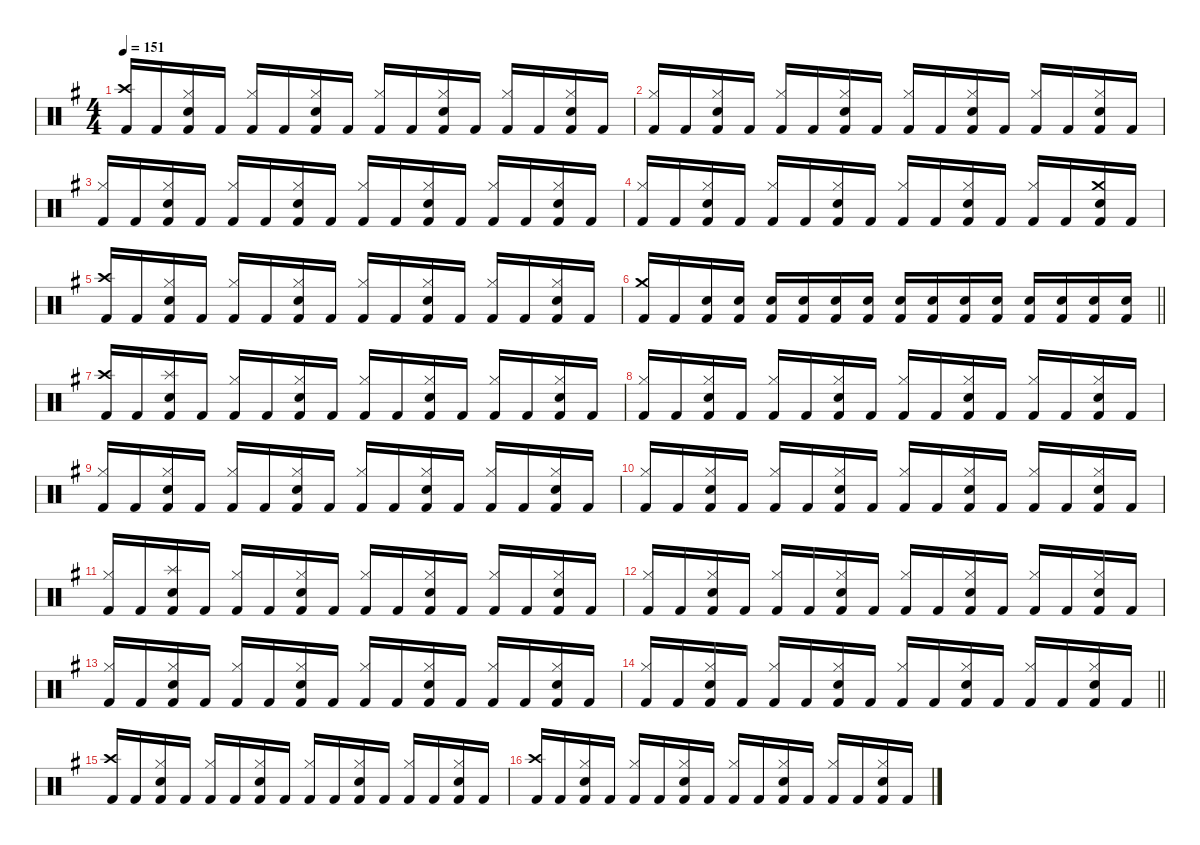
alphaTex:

\defaultSystemsLayout 4
\hideDynamics
\bracketExtendMode nobrackets
\singleTrackTrackNamePolicy hidden
\multiTrackTrackNamePolicy hidden
\otherSystemsTrackNameOrientation horizontal
\track ("Lars Ulrich" "drm.") {instrument percussion}
\staff {score}
\articulation defaults
\ts (4 4)
\tempo 151
\clef neutral
\ks eminor
("Crash high (hit)"{acc forcenatural} "Kick (hit) 2"{acc forcenatural}).16{dy f beam Up} "Kick (hit) 2"{acc forcenatural}.16{beam Up} ("Hi-Hat (closed)"{acc forcenatural} "Snare (hit) 2"{acc forcenatural} "Kick (hit) 2"{acc forcenatural}).16{beam Up} "Kick (hit) 2"{acc forcenatural}.16{beam Up} ("Hi-Hat (closed)"{acc forcenatural} "Kick (hit) 2"{acc forcenatural}).16{beam Up} "Kick (hit) 2"{acc forcenatural}.16{beam Up} ("Hi-Hat (closed)"{acc forcenatural} "Snare (hit) 2"{acc forcenatural} "Kick (hit) 2"{acc forcenatural}).16{beam Up} "Kick (hit) 2"{acc forcenatural}.16{beam Up} ("Hi-Hat (closed)"{acc forcenatural} "Kick (hit) 2"{acc forcenatural}).16{beam Up} "Kick (hit) 2"{acc forcenatural}.16{beam Up} ("Hi-Hat (closed)"{acc forcenatural} "Snare (hit) 2"{acc forcenatural} "Kick (hit) 2"{acc forcenatural}).16{beam Up} "Kick (hit) 2"{acc forcenatural}.16{beam Up} ("Hi-Hat (closed)"{acc forcenatural} "Kick (hit) 2"{acc forcenatural}).16{beam Up} "Kick (hit) 2"{acc forcenatural}.16{beam Up} ("Hi-Hat (closed)"{acc forcenatural} "Snare (hit) 2"{acc forcenatural} "Kick (hit) 2"{acc forcenatural}).16{beam Up} "Kick (hit) 2"{acc forcenatural}.16{beam Up} |
("Hi-Hat (closed)"{acc forcenatural} "Kick (hit) 2"{acc forcenatural}).16{beam Up} "Kick (hit) 2"{acc forcenatural}.16{beam Up} ("Hi-Hat (closed)"{acc forcenatural} "Snare (hit) 2"{acc forcenatural} "Kick (hit) 2"{acc forcenatural}).16{beam Up} "Kick (hit) 2"{acc forcenatural}.16{beam Up} ("Hi-Hat (closed)"{acc forcenatural} "Kick (hit) 2"{acc forcenatural}).16{beam Up} "Kick (hit) 2"{acc forcenatural}.16{beam Up} ("Hi-Hat (closed)"{acc forcenatural} "Snare (hit) 2"{acc forcenatural} "Kick (hit) 2"{acc forcenatural}).16{beam Up} "Kick (hit) 2"{acc forcenatural}.16{beam Up} ("Hi-Hat (closed)"{acc forcenatural} "Kick (hit) 2"{acc forcenatural}).16{beam Up} "Kick (hit) 2"{acc forcenatural}.16{beam Up} ("Hi-Hat (closed)"{acc forcenatural} "Snare (hit) 2"{acc forcenatural} "Kick (hit) 2"{acc forcenatural}).16{beam Up} "Kick (hit) 2"{acc forcenatural}.16{beam Up} ("Hi-Hat (closed)"{acc forcenatural} "Kick (hit) 2"{acc forcenatural}).16{beam Up} "Kick (hit) 2"{acc forcenatural}.16{beam Up} ("Hi-Hat (closed)"{acc forcenatural} "Snare (hit) 2"{acc forcenatural} "Kick (hit) 2"{acc forcenatural}).16{beam Up} "Kick (hit) 2"{acc forcenatural}.16{beam Up} |
("Hi-Hat (closed)"{acc forcenatural} "Kick (hit) 2"{acc forcenatural}).16{beam Up} "Kick (hit) 2"{acc forcenatural}.16{beam Up} ("Hi-Hat (closed)"{acc forcenatural} "Snare (hit) 2"{acc forcenatural} "Kick (hit) 2"{acc forcenatural}).16{beam Up} "Kick (hit) 2"{acc forcenatural}.16{beam Up} ("Hi-Hat (closed)"{acc forcenatural} "Kick (hit) 2"{acc forcenatural}).16{beam Up} "Kick (hit) 2"{acc forcenatural}.16{beam Up} ("Hi-Hat (closed)"{acc forcenatural} "Snare (hit) 2"{acc forcenatural} "Kick (hit) 2"{acc forcenatural}).16{beam Up} "Kick (hit) 2"{acc forcenatural}.16{beam Up} ("Hi-Hat (closed)"{acc forcenatural} "Kick (hit) 2"{acc forcenatural}).16{beam Up} "Kick (hit) 2"{acc forcenatural}.16{beam Up} ("Hi-Hat (closed)"{acc forcenatural} "Snare (hit) 2"{acc forcenatural} "Kick (hit) 2"{acc forcenatural}).16{beam Up} "Kick (hit) 2"{acc forcenatural}.16{beam Up} ("Hi-Hat (closed)"{acc forcenatural} "Kick (hit) 2"{acc forcenatural}).16{beam Up} "Kick (hit) 2"{acc forcenatural}.16{beam Up} ("Hi-Hat (closed)"{acc forcenatural} "Snare (hit) 2"{acc forcenatural} "Kick (hit) 2"{acc forcenatural}).16{beam Up} "Kick (hit) 2"{acc forcenatural}.16{beam Up} |
("Hi-Hat (closed)"{acc forcenatural} "Kick (hit) 2"{acc forcenatural}).16{beam Up} "Kick (hit) 2"{acc forcenatural}.16{beam Up} ("Hi-Hat (closed)"{acc forcenatural} "Snare (hit) 2"{acc forcenatural} "Kick (hit) 2"{acc forcenatural}).16{beam Up} "Kick (hit) 2"{acc forcenatural}.16{beam Up} ("Hi-Hat (closed)"{acc forcenatural} "Kick (hit) 2"{acc forcenatural}).16{beam Up} "Kick (hit) 2"{acc forcenatural}.16{beam Up} ("Hi-Hat (closed)"{acc forcenatural} "Snare (hit) 2"{acc forcenatural} "Kick (hit) 2"{acc forcenatural}).16{beam Up} "Kick (hit) 2"{acc forcenatural}.16{beam Up} ("Hi-Hat (closed)"{acc forcenatural} "Kick (hit) 2"{acc forcenatural}).16{beam Up} "Kick (hit) 2"{acc forcenatural}.16{beam Up} ("Hi-Hat (closed)"{acc forcenatural} "Snare (hit) 2"{acc forcenatural} "Kick (hit) 2"{acc forcenatural}).16{beam Up} "Kick (hit) 2"{acc forcenatural}.16{beam Up} ("Hi-Hat (closed)"{acc forcenatural} "Kick (hit) 2"{acc forcenatural}).16{beam Up} "Kick (hit) 2"{acc forcenatural}.16{beam Up} ("Crash medium (hit)"{acc forcenatural} "Snare (hit) 2"{acc forcenatural} "Kick (hit) 2"{acc forcenatural}).16{beam Up} "Kick (hit) 2"{acc forcenatural}.16{beam Up} |
("Crash high (hit)"{acc forcenatural} "Kick (hit) 2"{acc forcenatural}).16{beam Up} "Kick (hit) 2"{acc forcenatural}.16{beam Up} ("Hi-Hat (closed)"{acc forcenatural} "Snare (hit) 2"{acc forcenatural} "Kick (hit) 2"{acc forcenatural}).16{beam Up} "Kick (hit) 2"{acc forcenatural}.16{beam Up} ("Hi-Hat (closed)"{acc forcenatural} "Kick (hit) 2"{acc forcenatural}).16{beam Up} "Kick (hit) 2"{acc forcenatural}.16{beam Up} ("Hi-Hat (closed)"{acc forcenatural} "Snare (hit) 2"{acc forcenatural} "Kick (hit) 2"{acc forcenatural}).16{beam Up} "Kick (hit) 2"{acc forcenatural}.16{beam Up} ("Hi-Hat (closed)"{acc forcenatural} "Kick (hit) 2"{acc forcenatural}).16{beam Up} "Kick (hit) 2"{acc forcenatural}.16{beam Up} ("Hi-Hat (closed)"{acc forcenatural} "Snare (hit) 2"{acc forcenatural} "Kick (hit) 2"{acc forcenatural}).16{beam Up} "Kick (hit) 2"{acc forcenatural}.16{beam Up} ("Hi-Hat (closed)"{acc forcenatural} "Kick (hit) 2"{acc forcenatural}).16{beam Up} "Kick (hit) 2"{acc forcenatural}.16{beam Up} ("Hi-Hat (closed)"{acc forcenatural} "Snare (hit) 2"{acc forcenatural} "Kick (hit) 2"{acc forcenatural}).16{beam Up} "Kick (hit) 2"{acc forcenatural}.16{beam Up} |
\barLineRight lightlight
("Crash medium (hit)"{acc forcenatural} "Kick (hit) 2"{acc forcenatural}).16{beam Up} "Kick (hit) 2"{acc forcenatural}.16{beam Up} ("Snare (hit) 2"{acc forcenatural} "Kick (hit) 2"{acc forcenatural}).16{beam Up} ("Snare (hit) 2"{acc forcenatural} "Kick (hit) 2"{acc forcenatural}).16{beam Up} ("Snare (hit) 2"{acc forcenatural} "Kick (hit) 2"{acc forcenatural}).16{beam Up} ("Snare (hit) 2"{acc forcenatural} "Kick (hit) 2"{acc forcenatural}).16{beam Up} ("Snare (hit) 2"{acc forcenatural} "Kick (hit) 2"{acc forcenatural}).16{beam Up} ("Snare (hit) 2"{acc forcenatural} "Kick (hit) 2"{acc forcenatural}).16{beam Up} ("Snare (hit) 2"{acc forcenatural} "Kick (hit) 2"{acc forcenatural}).16{beam Up} ("Snare (hit) 2"{acc forcenatural} "Kick (hit) 2"{acc forcenatural}).16{beam Up} ("Snare (hit) 2"{acc forcenatural} "Kick (hit) 2"{acc forcenatural}).16{beam Up} ("Snare (hit) 2"{acc forcenatural} "Kick (hit) 2"{acc forcenatural}).16{beam Up} ("Snare (hit) 2"{acc forcenatural} "Kick (hit) 2"{acc forcenatural}).16{beam Up} ("Snare (hit) 2"{acc forcenatural} "Kick (hit) 2"{acc forcenatural}).16{beam Up} ("Snare (hit) 2"{acc forcenatural} "Kick (hit) 2"{acc forcenatural}).16{beam Up} ("Snare (hit) 2"{acc forcenatural} "Kick (hit) 2"{acc forcenatural}).16{beam Up} |
("Crash high (hit)"{acc forcenatural} "Kick (hit) 2"{acc forcenatural}).16{beam Up} "Kick (hit) 2"{acc forcenatural}.16{beam Up} ("Splash (hit)"{acc forcenatural} "Snare (hit) 2"{acc forcenatural} "Kick (hit) 2"{acc forcenatural}).16{beam Up} "Kick (hit) 2"{acc forcenatural}.16{beam Up} ("Hi-Hat (closed)"{acc forcenatural} "Kick (hit) 2"{acc forcenatural}).16{beam Up} "Kick (hit) 2"{acc forcenatural}.16{beam Up} ("Hi-Hat (closed)"{acc forcenatural} "Snare (hit) 2"{acc forcenatural} "Kick (hit) 2"{acc forcenatural}).16{beam Up} "Kick (hit) 2"{acc forcenatural}.16{beam Up} ("Hi-Hat (closed)"{acc forcenatural} "Kick (hit) 2"{acc forcenatural}).16{beam Up} "Kick (hit) 2"{acc forcenatural}.16{beam Up} ("Hi-Hat (closed)"{acc forcenatural} "Snare (hit) 2"{acc forcenatural} "Kick (hit) 2"{acc forcenatural}).16{beam Up} "Kick (hit) 2"{acc forcenatural}.16{beam Up} ("Hi-Hat (closed)"{acc forcenatural} "Kick (hit) 2"{acc forcenatural}).16{beam Up} "Kick (hit) 2"{acc forcenatural}.16{beam Up} ("Hi-Hat (closed)"{acc forcenatural} "Snare (hit) 2"{acc forcenatural} "Kick (hit) 2"{acc forcenatural}).16{beam Up} "Kick (hit) 2"{acc forcenatural}.16{beam Up} |
("Hi-Hat (closed)"{acc forcenatural} "Kick (hit) 2"{acc forcenatural}).16{beam Up} "Kick (hit) 2"{acc forcenatural}.16{beam Up} ("Hi-Hat (closed)"{acc forcenatural} "Snare (hit) 2"{acc forcenatural} "Kick (hit) 2"{acc forcenatural}).16{beam Up} "Kick (hit) 2"{acc forcenatural}.16{beam Up} ("Hi-Hat (closed)"{acc forcenatural} "Kick (hit) 2"{acc forcenatural}).16{beam Up} "Kick (hit) 2"{acc forcenatural}.16{beam Up} ("Hi-Hat (closed)"{acc forcenatural} "Snare (hit) 2"{acc forcenatural} "Kick (hit) 2"{acc forcenatural}).16{beam Up} "Kick (hit) 2"{acc forcenatural}.16{beam Up} ("Hi-Hat (closed)"{acc forcenatural} "Kick (hit) 2"{acc forcenatural}).16{beam Up} "Kick (hit) 2"{acc forcenatural}.16{beam Up} ("Hi-Hat (closed)"{acc forcenatural} "Snare (hit) 2"{acc forcenatural} "Kick (hit) 2"{acc forcenatural}).16{beam Up} "Kick (hit) 2"{acc forcenatural}.16{beam Up} ("Hi-Hat (closed)"{acc forcenatural} "Kick (hit) 2"{acc forcenatural}).16{beam Up} "Kick (hit) 2"{acc forcenatural}.16{beam Up} ("Hi-Hat (closed)"{acc forcenatural} "Snare (hit) 2"{acc forcenatural} "Kick (hit) 2"{acc forcenatural}).16{beam Up} "Kick (hit) 2"{acc forcenatural}.16{beam Up} |
("Hi-Hat (closed)"{acc forcenatural} "Kick (hit) 2"{acc forcenatural}).16{beam Up} "Kick (hit) 2"{acc forcenatural}.16{beam Up} ("Hi-Hat (closed)"{acc forcenatural} "Snare (hit) 2"{acc forcenatural} "Kick (hit) 2"{acc forcenatural}).16{beam Up} "Kick (hit) 2"{acc forcenatural}.16{beam Up} ("Hi-Hat (closed)"{acc forcenatural} "Kick (hit) 2"{acc forcenatural}).16{beam Up} "Kick (hit) 2"{acc forcenatural}.16{beam Up} ("Hi-Hat (closed)"{acc forcenatural} "Snare (hit) 2"{acc forcenatural} "Kick (hit) 2"{acc forcenatural}).16{beam Up} "Kick (hit) 2"{acc forcenatural}.16{beam Up} ("Hi-Hat (closed)"{acc forcenatural} "Kick (hit) 2"{acc forcenatural}).16{beam Up} "Kick (hit) 2"{acc forcenatural}.16{beam Up} ("Hi-Hat (closed)"{acc forcenatural} "Snare (hit) 2"{acc forcenatural} "Kick (hit) 2"{acc forcenatural}).16{beam Up} "Kick (hit) 2"{acc forcenatural}.16{beam Up} ("Hi-Hat (closed)"{acc forcenatural} "Kick (hit) 2"{acc forcenatural}).16{beam Up} "Kick (hit) 2"{acc forcenatural}.16{beam Up} ("Hi-Hat (closed)"{acc forcenatural} "Snare (hit) 2"{acc forcenatural} "Kick (hit) 2"{acc forcenatural}).16{beam Up} "Kick (hit) 2"{acc forcenatural}.16{beam Up} |
("Hi-Hat (closed)"{acc forcenatural} "Kick (hit) 2"{acc forcenatural}).16{beam Up} "Kick (hit) 2"{acc forcenatural}.16{beam Up} ("Hi-Hat (closed)"{acc forcenatural} "Snare (hit) 2"{acc forcenatural} "Kick (hit) 2"{acc forcenatural}).16{beam Up} "Kick (hit) 2"{acc forcenatural}.16{beam Up} ("Hi-Hat (closed)"{acc forcenatural} "Kick (hit) 2"{acc forcenatural}).16{beam Up} "Kick (hit) 2"{acc forcenatural}.16{beam Up} ("Hi-Hat (closed)"{acc forcenatural} "Snare (hit) 2"{acc forcenatural} "Kick (hit) 2"{acc forcenatural}).16{beam Up} "Kick (hit) 2"{acc forcenatural}.16{beam Up} ("Hi-Hat (closed)"{acc forcenatural} "Kick (hit) 2"{acc forcenatural}).16{beam Up} "Kick (hit) 2"{acc forcenatural}.16{beam Up} ("Hi-Hat (closed)"{acc forcenatural} "Snare (hit) 2"{acc forcenatural} "Kick (hit) 2"{acc forcenatural}).16{beam Up} "Kick (hit) 2"{acc forcenatural}.16{beam Up} ("Hi-Hat (closed)"{acc forcenatural} "Kick (hit) 2"{acc forcenatural}).16{beam Up} "Kick (hit) 2"{acc forcenatural}.16{beam Up} ("Hi-Hat (closed)"{acc forcenatural} "Snare (hit) 2"{acc forcenatural} "Kick (hit) 2"{acc forcenatural}).16{beam Up} "Kick (hit) 2"{acc forcenatural}.16{beam Up} |
("Hi-Hat (closed)"{acc forcenatural} "Kick (hit) 2"{acc forcenatural}).16{beam Up} "Kick (hit) 2"{acc forcenatural}.16{beam Up} ("Splash (hit)"{acc forcenatural} "Snare (hit) 2"{acc forcenatural} "Kick (hit) 2"{acc forcenatural}).16{beam Up} "Kick (hit) 2"{acc forcenatural}.16{beam Up} ("Hi-Hat (closed)"{acc forcenatural} "Kick (hit) 2"{acc forcenatural}).16{beam Up} "Kick (hit) 2"{acc forcenatural}.16{beam Up} ("Hi-Hat (closed)"{acc forcenatural} "Snare (hit) 2"{acc forcenatural} "Kick (hit) 2"{acc forcenatural}).16{beam Up} "Kick (hit) 2"{acc forcenatural}.16{beam Up} ("Hi-Hat (closed)"{acc forcenatural} "Kick (hit) 2"{acc forcenatural}).16{beam Up} "Kick (hit) 2"{acc forcenatural}.16{beam Up} ("Hi-Hat (closed)"{acc forcenatural} "Snare (hit) 2"{acc forcenatural} "Kick (hit) 2"{acc forcenatural}).16{beam Up} "Kick (hit) 2"{acc forcenatural}.16{beam Up} ("Hi-Hat (closed)"{acc forcenatural} "Kick (hit) 2"{acc forcenatural}).16{beam Up} "Kick (hit) 2"{acc forcenatural}.16{beam Up} ("Hi-Hat (closed)"{acc forcenatural} "Snare (hit) 2"{acc forcenatural} "Kick (hit) 2"{acc forcenatural}).16{beam Up} "Kick (hit) 2"{acc forcenatural}.16{beam Up} |
("Hi-Hat (closed)"{acc forcenatural} "Kick (hit) 2"{acc forcenatural}).16{beam Up} "Kick (hit) 2"{acc forcenatural}.16{beam Up} ("Hi-Hat (closed)"{acc forcenatural} "Snare (hit) 2"{acc forcenatural} "Kick (hit) 2"{acc forcenatural}).16{beam Up} "Kick (hit) 2"{acc forcenatural}.16{beam Up} ("Hi-Hat (closed)"{acc forcenatural} "Kick (hit) 2"{acc forcenatural}).16{beam Up} "Kick (hit) 2"{acc forcenatural}.16{beam Up} ("Hi-Hat (closed)"{acc forcenatural} "Snare (hit) 2"{acc forcenatural} "Kick (hit) 2"{acc forcenatural}).16{beam Up} "Kick (hit) 2"{acc forcenatural}.16{beam Up} ("Hi-Hat (closed)"{acc forcenatural} "Kick (hit) 2"{acc forcenatural}).16{beam Up} "Kick (hit) 2"{acc forcenatural}.16{beam Up} ("Hi-Hat (closed)"{acc forcenatural} "Snare (hit) 2"{acc forcenatural} "Kick (hit) 2"{acc forcenatural}).16{beam Up} "Kick (hit) 2"{acc forcenatural}.16{beam Up} ("Hi-Hat (closed)"{acc forcenatural} "Kick (hit) 2"{acc forcenatural}).16{beam Up} "Kick (hit) 2"{acc forcenatural}.16{beam Up} ("Hi-Hat (closed)"{acc forcenatural} "Snare (hit) 2"{acc forcenatural} "Kick (hit) 2"{acc forcenatural}).16{beam Up} "Kick (hit) 2"{acc forcenatural}.16{beam Up} |
("Hi-Hat (closed)"{acc forcenatural} "Kick (hit) 2"{acc forcenatural}).16{beam Up} "Kick (hit) 2"{acc forcenatural}.16{beam Up} ("Hi-Hat (closed)"{acc forcenatural} "Snare (hit) 2"{acc forcenatural} "Kick (hit) 2"{acc forcenatural}).16{beam Up} "Kick (hit) 2"{acc forcenatural}.16{beam Up} ("Hi-Hat (closed)"{acc forcenatural} "Kick (hit) 2"{acc forcenatural}).16{beam Up} "Kick (hit) 2"{acc forcenatural}.16{beam Up} ("Hi-Hat (closed)"{acc forcenatural} "Snare (hit) 2"{acc forcenatural} "Kick (hit) 2"{acc forcenatural}).16{beam Up} "Kick (hit) 2"{acc forcenatural}.16{beam Up} ("Hi-Hat (closed)"{acc forcenatural} "Kick (hit) 2"{acc forcenatural}).16{beam Up} "Kick (hit) 2"{acc forcenatural}.16{beam Up} ("Hi-Hat (closed)"{acc forcenatural} "Snare (hit) 2"{acc forcenatural} "Kick (hit) 2"{acc forcenatural}).16{beam Up} "Kick (hit) 2"{acc forcenatural}.16{beam Up} ("Hi-Hat (closed)"{acc forcenatural} "Kick (hit) 2"{acc forcenatural}).16{beam Up} "Kick (hit) 2"{acc forcenatural}.16{beam Up} ("Hi-Hat (closed)"{acc forcenatural} "Snare (hit) 2"{acc forcenatural} "Kick (hit) 2"{acc forcenatural}).16{beam Up} "Kick (hit) 2"{acc forcenatural}.16{beam Up} |
\barLineRight lightlight
("Hi-Hat (closed)"{acc forcenatural} "Kick (hit) 2"{acc forcenatural}).16{beam Up} "Kick (hit) 2"{acc forcenatural}.16{beam Up} ("Hi-Hat (closed)"{acc forcenatural} "Snare (hit) 2"{acc forcenatural} "Kick (hit) 2"{acc forcenatural}).16{beam Up} "Kick (hit) 2"{acc forcenatural}.16{beam Up} ("Hi-Hat (closed)"{acc forcenatural} "Kick (hit) 2"{acc forcenatural}).16{beam Up} "Kick (hit) 2"{acc forcenatural}.16{beam Up} ("Hi-Hat (closed)"{acc forcenatural} "Snare (hit) 2"{acc forcenatural} "Kick (hit) 2"{acc forcenatural}).16{beam Up} "Kick (hit) 2"{acc forcenatural}.16{beam Up} ("Hi-Hat (closed)"{acc forcenatural} "Kick (hit) 2"{acc forcenatural}).16{beam Up} "Kick (hit) 2"{acc forcenatural}.16{beam Up} ("Hi-Hat (closed)"{acc forcenatural} "Snare (hit) 2"{acc forcenatural} "Kick (hit) 2"{acc forcenatural}).16{beam Up} "Kick (hit) 2"{acc forcenatural}.16{beam Up} ("Hi-Hat (closed)"{acc forcenatural} "Kick (hit) 2"{acc forcenatural}).16{beam Up} "Kick (hit) 2"{acc forcenatural}.16{beam Up} ("Hi-Hat (closed)"{acc forcenatural} "Snare (hit) 2"{acc forcenatural} "Kick (hit) 2"{acc forcenatural}).16{beam Up} "Kick (hit) 2"{acc forcenatural}.16{beam Up} |
("Crash high (hit)"{acc forcenatural} "Kick (hit) 2"{acc forcenatural}).16{beam Up} "Kick (hit) 2"{acc forcenatural}.16{beam Up} ("Hi-Hat (closed)"{acc forcenatural} "Snare (hit) 2"{acc forcenatural} "Kick (hit) 2"{acc forcenatural}).16{beam Up} "Kick (hit) 2"{acc forcenatural}.16{beam Up} ("Hi-Hat (closed)"{acc forcenatural} "Kick (hit) 2"{acc forcenatural}).16{beam Up} "Kick (hit) 2"{acc forcenatural}.16{beam Up} ("Hi-Hat (closed)"{acc forcenatural} "Snare (hit) 2"{acc forcenatural} "Kick (hit) 2"{acc forcenatural}).16{beam Up} "Kick (hit) 2"{acc forcenatural}.16{beam Up} ("Hi-Hat (closed)"{acc forcenatural} "Kick (hit) 2"{acc forcenatural}).16{beam Up} "Kick (hit) 2"{acc forcenatural}.16{beam Up} ("Hi-Hat (closed)"{acc forcenatural} "Snare (hit) 2"{acc forcenatural} "Kick (hit) 2"{acc forcenatural}).16{beam Up} "Kick (hit) 2"{acc forcenatural}.16{beam Up} ("Hi-Hat (closed)"{acc forcenatural} "Kick (hit) 2"{acc forcenatural}).16{beam Up} "Kick (hit) 2"{acc forcenatural}.16{beam Up} ("Hi-Hat (closed)"{acc forcenatural} "Snare (hit) 2"{acc forcenatural} "Kick (hit) 2"{acc forcenatural}).16{beam Up} "Kick (hit) 2"{acc forcenatural}.16{beam Up} |
("Crash high (hit)"{acc forcenatural} "Kick (hit) 2"{acc forcenatural}).16{beam Up} "Kick (hit) 2"{acc forcenatural}.16{beam Up} ("Hi-Hat (closed)"{acc forcenatural} "Snare (hit) 2"{acc forcenatural} "Kick (hit) 2"{acc forcenatural}).16{beam Up} "Kick (hit) 2"{acc forcenatural}.16{beam Up} ("Hi-Hat (closed)"{acc forcenatural} "Kick (hit) 2"{acc forcenatural}).16{beam Up} "Kick (hit) 2"{acc forcenatural}.16{beam Up} ("Hi-Hat (closed)"{acc forcenatural} "Snare (hit) 2"{acc forcenatural} "Kick (hit) 2"{acc forcenatural}).16{beam Up} "Kick (hit) 2"{acc forcenatural}.16{beam Up} ("Hi-Hat (closed)"{acc forcenatural} "Kick (hit) 2"{acc forcenatural}).16{beam Up} "Kick (hit) 2"{acc forcenatural}.16{beam Up} ("Hi-Hat (closed)"{acc forcenatural} "Snare (hit) 2"{acc forcenatural} "Kick (hit) 2"{acc forcenatural}).16{beam Up} "Kick (hit) 2"{acc forcenatural}.16{beam Up} ("Hi-Hat (closed)"{acc forcenatural} "Kick (hit) 2"{acc forcenatural}).16{beam Up} "Kick (hit) 2"{acc forcenatural}.16{beam Up} ("Hi-Hat (closed)"{acc forcenatural} "Snare (hit) 2"{acc forcenatural} "Kick (hit) 2"{acc forcenatural}).16{beam Up} "Kick (hit) 2"{acc forcenatural}.16{beam Up}
